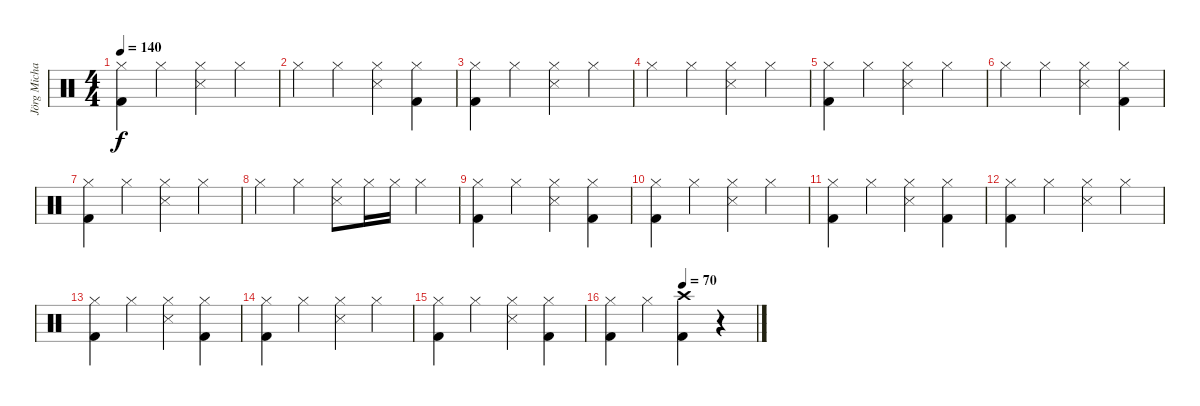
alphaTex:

\track ("Jörg Michael (Drums)" "Jörg Micha") {instrument percussion}
\staff {score}
\articulation defaults
\ts (4 4)
\tempo 140
\clef neutral
\ks c
("Hi-Hat (closed)" "Kick (hit) 2").4{dy f} "Hi-Hat (closed)".4 ("Hi-Hat (closed)" "Snare (side stick) 3").4 "Hi-Hat (closed)".4 |
"Hi-Hat (closed)".4 "Hi-Hat (closed)".4 ("Hi-Hat (closed)" "Snare (side stick) 3").4 ("Hi-Hat (closed)" "Kick (hit) 2").4 |
("Hi-Hat (closed)" "Kick (hit) 2").4 "Hi-Hat (closed)".4 ("Hi-Hat (closed)" "Snare (side stick) 3").4 "Hi-Hat (closed)".4 |
"Hi-Hat (closed)".4 "Hi-Hat (closed)".4 ("Hi-Hat (closed)" "Snare (side stick) 3").4 "Hi-Hat (closed)".4 |
("Hi-Hat (closed)" "Kick (hit) 2").4 "Hi-Hat (closed)".4 ("Hi-Hat (closed)" "Snare (side stick) 3").4 "Hi-Hat (closed)".4 |
"Hi-Hat (closed)".4 "Hi-Hat (closed)".4 ("Hi-Hat (closed)" "Snare (side stick) 3").4 ("Hi-Hat (closed)" "Kick (hit) 2").4 |
("Hi-Hat (closed)" "Kick (hit) 2").4 "Hi-Hat (closed)".4 ("Hi-Hat (closed)" "Snare (side stick) 3").4 "Hi-Hat (closed)".4 |
"Hi-Hat (closed)".4 "Hi-Hat (closed)".4 ("Hi-Hat (closed)" "Snare (side stick) 3").8 "Hi-Hat (closed)".16 "Hi-Hat (closed)".16 "Hi-Hat (closed)".4 |
("Hi-Hat (closed)" "Kick (hit) 2").4 "Hi-Hat (closed)".4 ("Hi-Hat (closed)" "Snare (side stick) 3").4 ("Hi-Hat (closed)" "Kick (hit) 2").4 |
("Hi-Hat (closed)" "Kick (hit) 2").4 "Hi-Hat (closed)".4 ("Hi-Hat (closed)" "Snare (side stick) 3").4 "Hi-Hat (closed)".4 |
("Hi-Hat (closed)" "Kick (hit) 2").4 "Hi-Hat (closed)".4 ("Hi-Hat (closed)" "Snare (side stick) 3").4 ("Hi-Hat (closed)" "Kick (hit) 2").4 |
("Hi-Hat (closed)" "Kick (hit) 2").4 "Hi-Hat (closed)".4 ("Hi-Hat (closed)" "Snare (side stick) 3").4 "Hi-Hat (closed)".4 |
("Hi-Hat (closed)" "Kick (hit) 2").4 "Hi-Hat (closed)".4 ("Hi-Hat (closed)" "Snare (side stick) 3").4 ("Hi-Hat (closed)" "Kick (hit) 2").4 |
("Hi-Hat (closed)" "Kick (hit) 2").4 "Hi-Hat (closed)".4 ("Hi-Hat (closed)" "Snare (side stick) 3").4 "Hi-Hat (closed)".4 |
("Hi-Hat (closed)" "Kick (hit) 2").4 "Hi-Hat (closed)".4 ("Hi-Hat (closed)" "Snare (side stick) 3").4 ("Hi-Hat (closed)" "Kick (hit) 2").4 |
\tempo (70 0.5)
("Hi-Hat (closed)" "Kick (hit) 2").4 "Hi-Hat (closed)".4 ("Crash high (hit)" "Kick (hit) 2").4 r.4
